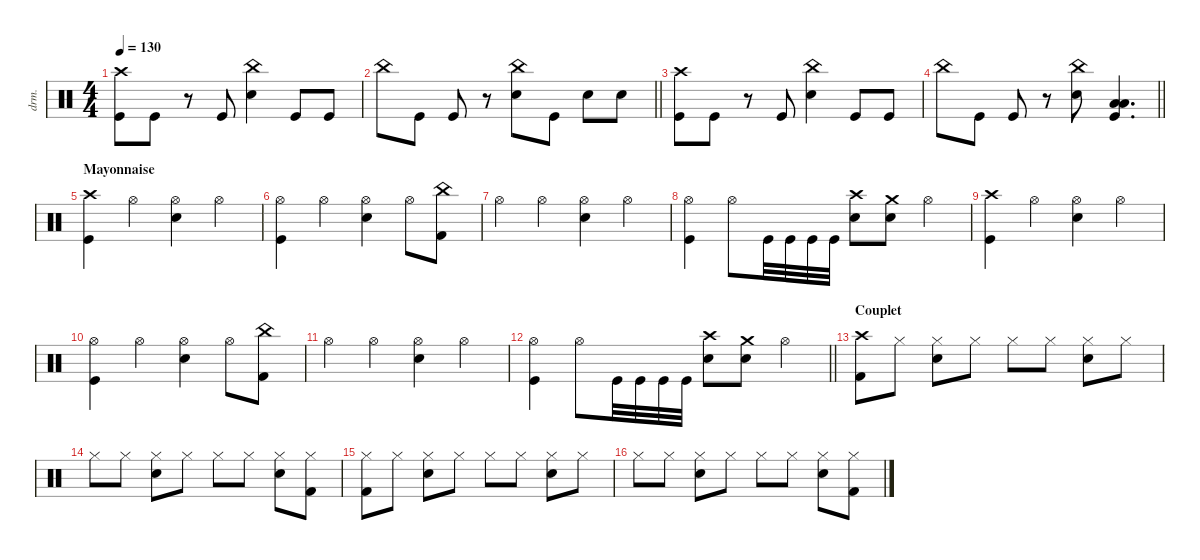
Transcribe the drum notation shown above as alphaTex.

\defaultSystemsLayout 4
\hideDynamics
\bracketExtendMode nobrackets
\otherSystemsTrackNameOrientation horizontal
\track ("Manouche" "drm.") {instrument percussion}
\staff {score}
\articulation defaults
\ts (4 4)
\tempo 130
\clef neutral
\ks c
("Crash high (hit)" "Kick (hit)").8{dy f} "Kick (hit)".8 r.8 "Kick (hit)".8 ("China (hit)" "Snare (hit) 2").4 "Kick (hit)".8 "Kick (hit)".8 |
\barLineRight lightlight "China (hit)".8 "Kick (hit)".8 "Kick (hit)".8
r.8 ("China (hit)" "Snare (hit) 2").8 "Kick (hit)".8 "Snare (hit) 2".8 "Snare (hit) 2".8 |
("Crash high (hit)" "Kick (hit)").8 "Kick (hit)".8 r.8 "Kick (hit)".8 ("China (hit)" "Snare (hit) 2").4 "Kick (hit)".8 "Kick (hit)".8 |
\barLineRight lightlight "China (hit)".8 "Kick (hit)".8 "Kick (hit)".8
r.8 ("China (hit)" "Snare (hit) 2").8 ("Low Tom (hit)" "Kick (hit)" "Low Floor Tom (hit)").4{d dy ff} |
\section ("" "Mayonnaise")
("Crash high (hit)" "Kick (hit)").4{dy f} "Hi-Hat (open)".4 ("Hi-Hat (open)" "Snare (hit) 2").4 "Hi-Hat (open)".4 |
("Hi-Hat (open)" "Kick (hit)").4 "Hi-Hat (open)".4 ("Hi-Hat (open)" "Snare (hit) 2").4 "Hi-Hat (open)".8 ("China (hit)" "Kick (hit) 2").8 |
"Hi-Hat (open)".4 "Hi-Hat (open)".4 ("Hi-Hat (open)" "Snare (hit) 2").4 "Hi-Hat (open)".4 |
("Hi-Hat (open)" "Kick (hit)").4 "Hi-Hat (open)".8 "Kick (hit)".32 "Kick (hit)".32 "Kick (hit)".32 "Kick (hit)".32 ("Snare (hit) 2" "Crash high (hit)").8 ("Crash medium (hit)" "Snare (hit) 2").8 "Hi-Hat (open)".4 |
("Crash high (hit)" "Kick (hit)").4 "Hi-Hat (open)".4 ("Hi-Hat (open)" "Snare (hit) 2").4 "Hi-Hat (open)".4 |
("Hi-Hat (open)" "Kick (hit)").4 "Hi-Hat (open)".4 ("Hi-Hat (open)" "Snare (hit) 2").4 "Hi-Hat (open)".8 ("China (hit)" "Kick (hit) 2").8 |
"Hi-Hat (open)".4 "Hi-Hat (open)".4 ("Hi-Hat (open)" "Snare (hit) 2").4 "Hi-Hat (open)".4 |
\barLineRight lightlight
("Hi-Hat (open)" "Kick (hit)").4 "Hi-Hat (open)".8 "Kick (hit)".32 "Kick (hit)".32 "Kick (hit)".32 "Kick (hit)".32 ("Snare (hit) 2" "Crash high (hit)").8 ("Crash medium (hit)" "Snare (hit) 2").8 "Hi-Hat (open)".4 |
\section ("" "Couplet")
("Crash high (hit)" "Kick (hit) 2").8 "Hi-Hat (closed)".8{dy mp} ("Hi-Hat (closed)" "Snare (hit) 2").8{dy f} "Hi-Hat (closed)".8{dy mp} "Hi-Hat (closed)".8{dy f} "Hi-Hat (closed)".8{dy mp} ("Hi-Hat (closed)" "Snare (hit) 2").8{dy f} "Hi-Hat (closed)".8{dy mp} |
"Hi-Hat (closed)".8{dy f} "Hi-Hat (closed)".8{dy mp} ("Hi-Hat (closed)" "Snare (hit) 2").8{dy f} "Hi-Hat (closed)".8{dy mp} "Hi-Hat (closed)".8{dy f} "Hi-Hat (closed)".8{dy mp} ("Hi-Hat (closed)" "Snare (hit) 2").8{dy f} ("Hi-Hat (closed)" "Kick (hit) 2").8{dy mp} |
("Hi-Hat (closed)" "Kick (hit) 2").8 "Hi-Hat (closed)".8 ("Hi-Hat (closed)" "Snare (hit) 2").8{dy f} "Hi-Hat (closed)".8{dy mp} "Hi-Hat (closed)".8{dy f} "Hi-Hat (closed)".8{dy mp} ("Hi-Hat (closed)" "Snare (hit) 2").8{dy f} "Hi-Hat (closed)".8{dy mp} |
"Hi-Hat (closed)".8{dy f} "Hi-Hat (closed)".8{dy mp} ("Hi-Hat (closed)" "Snare (hit) 2").8{dy f} "Hi-Hat (closed)".8{dy mp} "Hi-Hat (closed)".8{dy f} "Hi-Hat (closed)".8{dy mp} ("Hi-Hat (closed)" "Snare (hit) 2").8{dy f} ("Hi-Hat (closed)" "Kick (hit) 2").8{dy mp}
